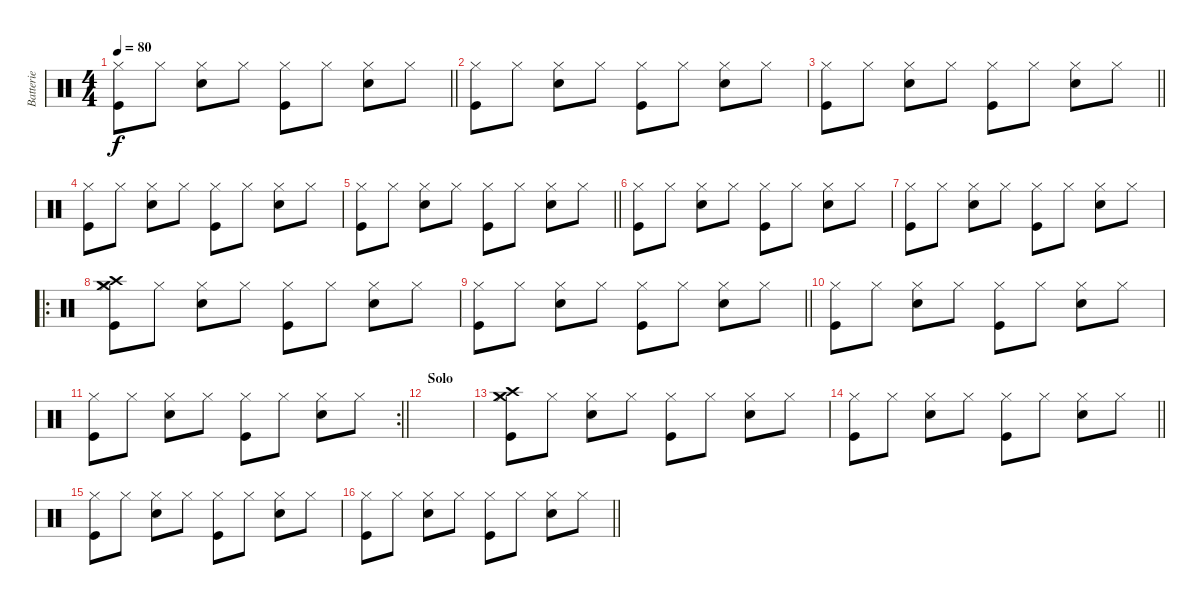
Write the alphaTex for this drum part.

\track ("Batterie" "Batterie") {instrument percussion}
\staff {score}
\articulation defaults
\ts (4 4)
\tempo 80
\clef neutral
\barLineRight lightlight
\ks c
("Kick (hit)" "Hi-Hat (closed)").8{dy f} "Hi-Hat (closed)".8 ("Snare (hit) 2" "Hi-Hat (closed)").8 "Hi-Hat (closed)".8 ("Kick (hit)" "Hi-Hat (closed)").8 "Hi-Hat (closed)".8 ("Snare (hit) 2" "Hi-Hat (closed)").8 "Hi-Hat (closed)".8 |
("Kick (hit)" "Hi-Hat (closed)").8 "Hi-Hat (closed)".8 ("Snare (hit) 2" "Hi-Hat (closed)").8 "Hi-Hat (closed)".8 ("Kick (hit)" "Hi-Hat (closed)").8 "Hi-Hat (closed)".8 ("Snare (hit) 2" "Hi-Hat (closed)").8 "Hi-Hat (closed)".8 |
\barLineRight lightlight
("Kick (hit)" "Hi-Hat (closed)").8 "Hi-Hat (closed)".8 ("Snare (hit) 2" "Hi-Hat (closed)").8 "Hi-Hat (closed)".8 ("Kick (hit)" "Hi-Hat (closed)").8 "Hi-Hat (closed)".8 ("Snare (hit) 2" "Hi-Hat (closed)").8 "Hi-Hat (closed)".8 |
("Kick (hit)" "Hi-Hat (closed)").8 "Hi-Hat (closed)".8 ("Snare (hit) 2" "Hi-Hat (closed)").8 "Hi-Hat (closed)".8 ("Kick (hit)" "Hi-Hat (closed)").8 "Hi-Hat (closed)".8 ("Snare (hit) 2" "Hi-Hat (closed)").8 "Hi-Hat (closed)".8 |
\barLineRight lightlight
("Kick (hit)" "Hi-Hat (closed)").8 "Hi-Hat (closed)".8 ("Snare (hit) 2" "Hi-Hat (closed)").8 "Hi-Hat (closed)".8 ("Kick (hit)" "Hi-Hat (closed)").8 "Hi-Hat (closed)".8 ("Snare (hit) 2" "Hi-Hat (closed)").8 "Hi-Hat (closed)".8 |
("Kick (hit)" "Hi-Hat (closed)").8 "Hi-Hat (closed)".8 ("Snare (hit) 2" "Hi-Hat (closed)").8 "Hi-Hat (closed)".8 ("Kick (hit)" "Hi-Hat (closed)").8 "Hi-Hat (closed)".8 ("Snare (hit) 2" "Hi-Hat (closed)").8 "Hi-Hat (closed)".8 |
("Kick (hit)" "Hi-Hat (closed)").8 "Hi-Hat (closed)".8 ("Snare (hit) 2" "Hi-Hat (closed)").8 "Hi-Hat (closed)".8 ("Kick (hit)" "Hi-Hat (closed)").8 "Hi-Hat (closed)".8 ("Snare (hit) 2" "Hi-Hat (closed)").8 "Hi-Hat (closed)".8 |
\ro
("Kick (hit)" "Hi-Hat (closed)" "Crash medium (hit)" "Crash high (hit)").8 "Hi-Hat (closed)".8 ("Snare (hit) 2" "Hi-Hat (closed)").8 "Hi-Hat (closed)".8 ("Kick (hit)" "Hi-Hat (closed)").8 "Hi-Hat (closed)".8 ("Snare (hit) 2" "Hi-Hat (closed)").8 "Hi-Hat (closed)".8 |
\barLineRight lightlight
("Kick (hit)" "Hi-Hat (closed)").8 "Hi-Hat (closed)".8 ("Snare (hit) 2" "Hi-Hat (closed)").8 "Hi-Hat (closed)".8 ("Kick (hit)" "Hi-Hat (closed)").8 "Hi-Hat (closed)".8 ("Snare (hit) 2" "Hi-Hat (closed)").8 "Hi-Hat (closed)".8 |
("Kick (hit)" "Hi-Hat (closed)").8 "Hi-Hat (closed)".8 ("Snare (hit) 2" "Hi-Hat (closed)").8 "Hi-Hat (closed)".8 ("Kick (hit)" "Hi-Hat (closed)").8 "Hi-Hat (closed)".8 ("Snare (hit) 2" "Hi-Hat (closed)").8 "Hi-Hat (closed)".8 |
\rc 2
\barLineRight lightlight
("Kick (hit)" "Hi-Hat (closed)").8 "Hi-Hat (closed)".8 ("Snare (hit) 2" "Hi-Hat (closed)").8 "Hi-Hat (closed)".8 ("Kick (hit)" "Hi-Hat (closed)").8 "Hi-Hat (closed)".8 ("Snare (hit) 2" "Hi-Hat (closed)").8 "Hi-Hat (closed)".8 |
\section ("" "Solo")
|
("Kick (hit)" "Hi-Hat (closed)" "Crash medium (hit)" "Crash high (hit)").8 "Hi-Hat (closed)".8 ("Snare (hit) 2" "Hi-Hat (closed)").8 "Hi-Hat (closed)".8 ("Kick (hit)" "Hi-Hat (closed)").8 "Hi-Hat (closed)".8 ("Snare (hit) 2" "Hi-Hat (closed)").8 "Hi-Hat (closed)".8 |
\barLineRight lightlight
("Kick (hit)" "Hi-Hat (closed)").8 "Hi-Hat (closed)".8 ("Snare (hit) 2" "Hi-Hat (closed)").8 "Hi-Hat (closed)".8 ("Kick (hit)" "Hi-Hat (closed)").8 "Hi-Hat (closed)".8 ("Snare (hit) 2" "Hi-Hat (closed)").8 "Hi-Hat (closed)".8 |
\section ("" "")
("Kick (hit)" "Hi-Hat (closed)").8 "Hi-Hat (closed)".8 ("Snare (hit) 2" "Hi-Hat (closed)").8 "Hi-Hat (closed)".8 ("Kick (hit)" "Hi-Hat (closed)").8 "Hi-Hat (closed)".8 ("Snare (hit) 2" "Hi-Hat (closed)").8 "Hi-Hat (closed)".8 |
\barLineRight lightlight
("Kick (hit)" "Hi-Hat (closed)").8 "Hi-Hat (closed)".8 ("Snare (hit) 2" "Hi-Hat (closed)").8 "Hi-Hat (closed)".8 ("Kick (hit)" "Hi-Hat (closed)").8 "Hi-Hat (closed)".8 ("Snare (hit) 2" "Hi-Hat (closed)").8 "Hi-Hat (closed)".8
